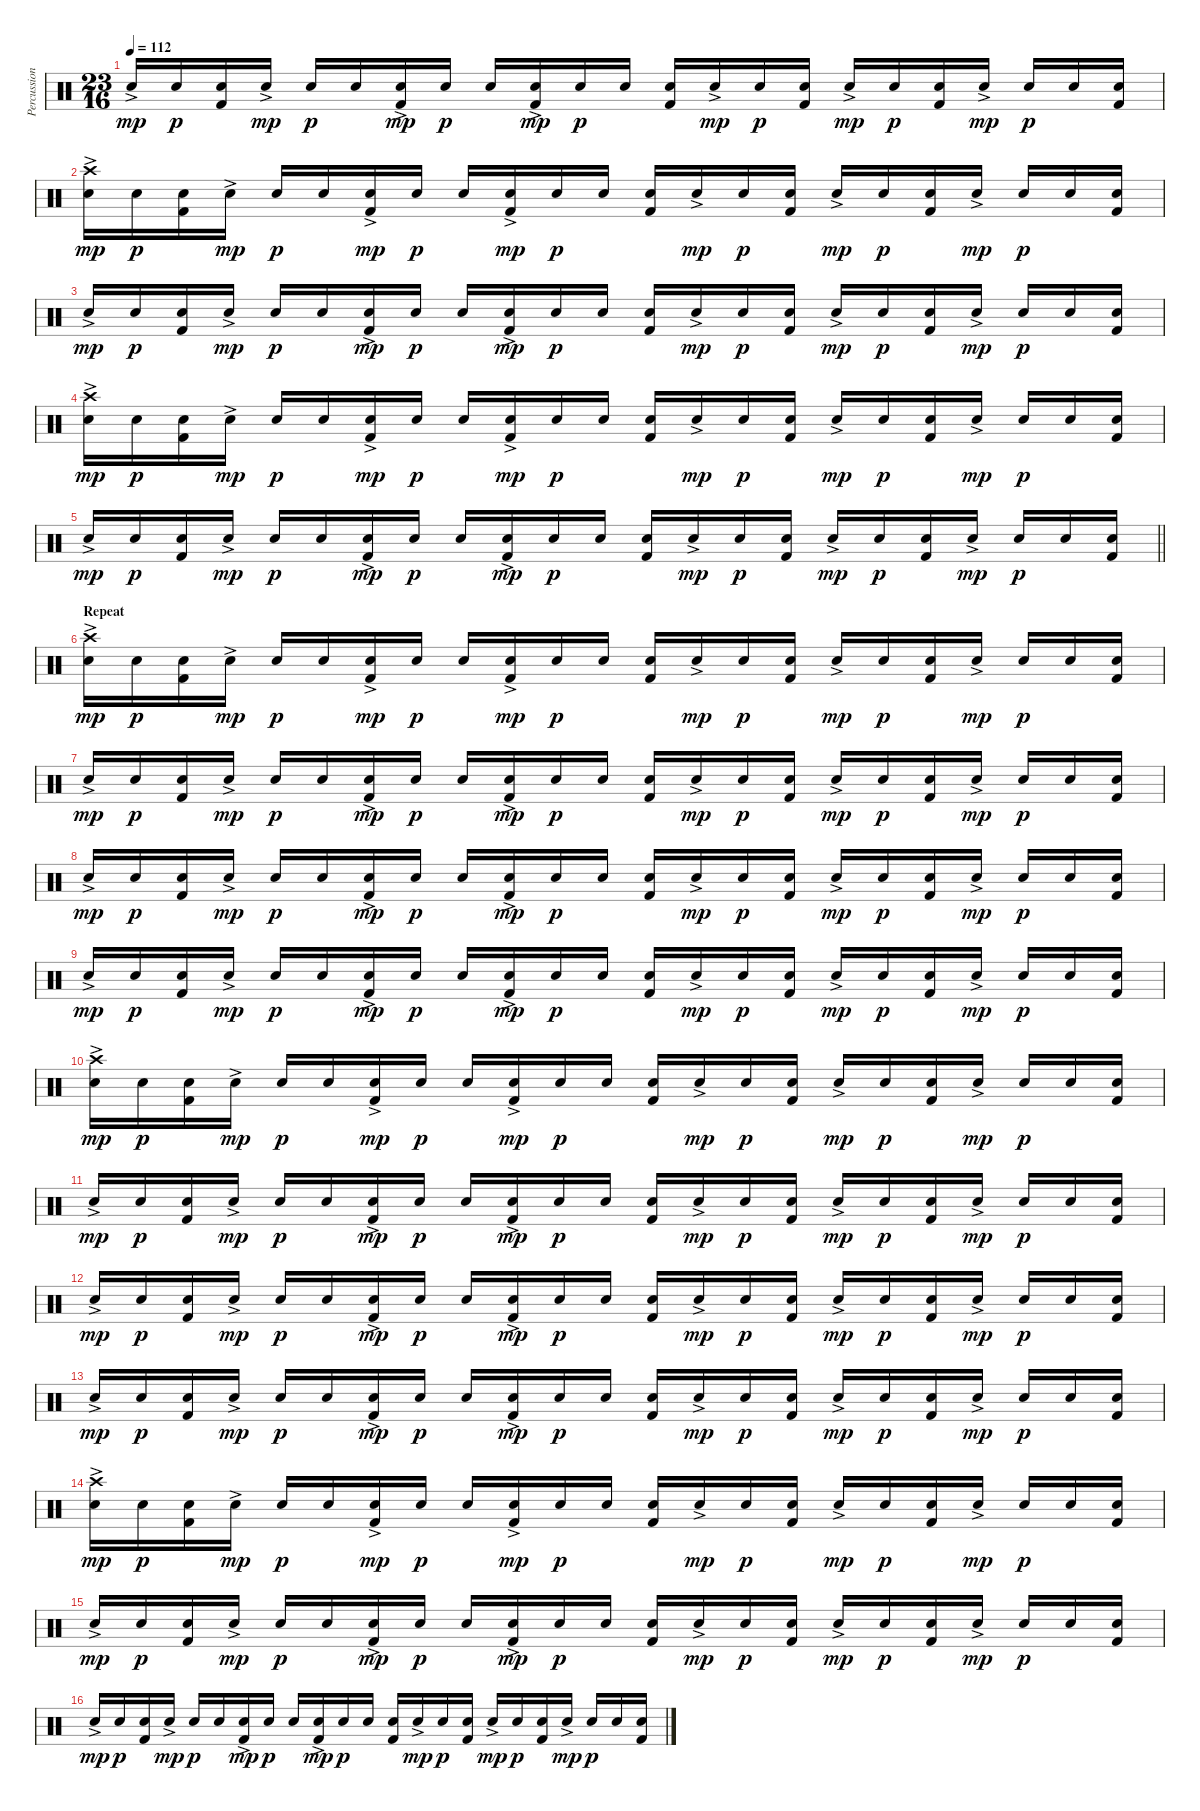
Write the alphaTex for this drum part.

\track ("Percussion" "Percussion") {instrument percussion}
\staff {score}
\articulation defaults
\ts (23 16)
\tempo 112
\clef neutral
\ks c "Snare (hit) 2"{ac}.16{dy mp} "Snare (hit) 2".16{dy p}
("Kick (hit) 2" "Snare (hit) 2").16 "Snare (hit) 2"{ac}.16{dy mp} "Snare (hit) 2".16{dy p} "Snare (hit) 2".16 ("Kick (hit) 2" "Snare (hit) 2"{ac}).16{dy mp} "Snare (hit) 2".16{dy p} "Snare (hit) 2".16 ("Kick (hit) 2" "Snare (hit) 2"{ac}).16{dy mp} "Snare (hit) 2".16{dy p} "Snare (hit) 2".16 ("Kick (hit) 2" "Snare (hit) 2").16 "Snare (hit) 2"{ac}.16{dy mp} "Snare (hit) 2".16{dy p} ("Kick (hit) 2" "Snare (hit) 2").16 "Snare (hit) 2"{ac}.16{dy mp} "Snare (hit) 2".16{dy p} ("Kick (hit) 2" "Snare (hit) 2").16 "Snare (hit) 2"{ac}.16{dy mp} "Snare (hit) 2".16{dy p} "Snare (hit) 2".16 ("Kick (hit) 2" "Snare (hit) 2").16 |
("Crash high (hit)" "Snare (hit) 2"{ac}).16{dy mp} "Snare (hit) 2".16{dy p} ("Kick (hit) 2" "Snare (hit) 2").16 "Snare (hit) 2"{ac}.16{dy mp} "Snare (hit) 2".16{dy p} "Snare (hit) 2".16 ("Kick (hit) 2" "Snare (hit) 2"{ac}).16{dy mp} "Snare (hit) 2".16{dy p} "Snare (hit) 2".16 ("Kick (hit) 2" "Snare (hit) 2"{ac}).16{dy mp} "Snare (hit) 2".16{dy p} "Snare (hit) 2".16 ("Kick (hit) 2" "Snare (hit) 2").16 "Snare (hit) 2"{ac}.16{dy mp} "Snare (hit) 2".16{dy p} ("Kick (hit) 2" "Snare (hit) 2").16 "Snare (hit) 2"{ac}.16{dy mp} "Snare (hit) 2".16{dy p} ("Kick (hit) 2" "Snare (hit) 2").16 "Snare (hit) 2"{ac}.16{dy mp} "Snare (hit) 2".16{dy p} "Snare (hit) 2".16 ("Kick (hit) 2" "Snare (hit) 2").16 |
"Snare (hit) 2"{ac}.16{dy mp} "Snare (hit) 2".16{dy p} ("Kick (hit) 2" "Snare (hit) 2").16 "Snare (hit) 2"{ac}.16{dy mp} "Snare (hit) 2".16{dy p} "Snare (hit) 2".16 ("Kick (hit) 2" "Snare (hit) 2"{ac}).16{dy mp} "Snare (hit) 2".16{dy p} "Snare (hit) 2".16 ("Kick (hit) 2" "Snare (hit) 2"{ac}).16{dy mp} "Snare (hit) 2".16{dy p} "Snare (hit) 2".16 ("Kick (hit) 2" "Snare (hit) 2").16 "Snare (hit) 2"{ac}.16{dy mp} "Snare (hit) 2".16{dy p} ("Kick (hit) 2" "Snare (hit) 2").16 "Snare (hit) 2"{ac}.16{dy mp} "Snare (hit) 2".16{dy p} ("Kick (hit) 2" "Snare (hit) 2").16 "Snare (hit) 2"{ac}.16{dy mp} "Snare (hit) 2".16{dy p} "Snare (hit) 2".16 ("Kick (hit) 2" "Snare (hit) 2").16 |
("Crash high (hit)" "Snare (hit) 2"{ac}).16{dy mp} "Snare (hit) 2".16{dy p} ("Kick (hit) 2" "Snare (hit) 2").16 "Snare (hit) 2"{ac}.16{dy mp} "Snare (hit) 2".16{dy p} "Snare (hit) 2".16 ("Kick (hit) 2" "Snare (hit) 2"{ac}).16{dy mp} "Snare (hit) 2".16{dy p} "Snare (hit) 2".16 ("Kick (hit) 2" "Snare (hit) 2"{ac}).16{dy mp} "Snare (hit) 2".16{dy p} "Snare (hit) 2".16 ("Kick (hit) 2" "Snare (hit) 2").16 "Snare (hit) 2"{ac}.16{dy mp} "Snare (hit) 2".16{dy p} ("Kick (hit) 2" "Snare (hit) 2").16 "Snare (hit) 2"{ac}.16{dy mp} "Snare (hit) 2".16{dy p} ("Kick (hit) 2" "Snare (hit) 2").16 "Snare (hit) 2"{ac}.16{dy mp} "Snare (hit) 2".16{dy p} "Snare (hit) 2".16 ("Kick (hit) 2" "Snare (hit) 2").16 |
\barLineRight lightlight "Snare (hit) 2"{ac}.16{dy mp} "Snare (hit) 2".16{dy p}
("Kick (hit) 2" "Snare (hit) 2").16 "Snare (hit) 2"{ac}.16{dy mp} "Snare (hit) 2".16{dy p} "Snare (hit) 2".16 ("Kick (hit) 2" "Snare (hit) 2"{ac}).16{dy mp} "Snare (hit) 2".16{dy p} "Snare (hit) 2".16 ("Kick (hit) 2" "Snare (hit) 2"{ac}).16{dy mp} "Snare (hit) 2".16{dy p} "Snare (hit) 2".16 ("Kick (hit) 2" "Snare (hit) 2").16 "Snare (hit) 2"{ac}.16{dy mp} "Snare (hit) 2".16{dy p} ("Kick (hit) 2" "Snare (hit) 2").16 "Snare (hit) 2"{ac}.16{dy mp} "Snare (hit) 2".16{dy p} ("Kick (hit) 2" "Snare (hit) 2").16 "Snare (hit) 2"{ac}.16{dy mp} "Snare (hit) 2".16{dy p} "Snare (hit) 2".16 ("Kick (hit) 2" "Snare (hit) 2").16 |
\section ("" "Repeat")
("Crash high (hit)" "Snare (hit) 2"{ac}).16{dy mp} "Snare (hit) 2".16{dy p} ("Kick (hit) 2" "Snare (hit) 2").16 "Snare (hit) 2"{ac}.16{dy mp} "Snare (hit) 2".16{dy p} "Snare (hit) 2".16 ("Kick (hit) 2" "Snare (hit) 2"{ac}).16{dy mp} "Snare (hit) 2".16{dy p} "Snare (hit) 2".16 ("Kick (hit) 2" "Snare (hit) 2"{ac}).16{dy mp} "Snare (hit) 2".16{dy p} "Snare (hit) 2".16 ("Kick (hit) 2" "Snare (hit) 2").16 "Snare (hit) 2"{ac}.16{dy mp} "Snare (hit) 2".16{dy p} ("Kick (hit) 2" "Snare (hit) 2").16 "Snare (hit) 2"{ac}.16{dy mp} "Snare (hit) 2".16{dy p} ("Kick (hit) 2" "Snare (hit) 2").16 "Snare (hit) 2"{ac}.16{dy mp} "Snare (hit) 2".16{dy p} "Snare (hit) 2".16 ("Kick (hit) 2" "Snare (hit) 2").16 |
"Snare (hit) 2"{ac}.16{dy mp} "Snare (hit) 2".16{dy p} ("Kick (hit) 2" "Snare (hit) 2").16 "Snare (hit) 2"{ac}.16{dy mp} "Snare (hit) 2".16{dy p} "Snare (hit) 2".16 ("Kick (hit) 2" "Snare (hit) 2"{ac}).16{dy mp} "Snare (hit) 2".16{dy p} "Snare (hit) 2".16 ("Kick (hit) 2" "Snare (hit) 2"{ac}).16{dy mp} "Snare (hit) 2".16{dy p} "Snare (hit) 2".16 ("Kick (hit) 2" "Snare (hit) 2").16 "Snare (hit) 2"{ac}.16{dy mp} "Snare (hit) 2".16{dy p} ("Kick (hit) 2" "Snare (hit) 2").16 "Snare (hit) 2"{ac}.16{dy mp} "Snare (hit) 2".16{dy p} ("Kick (hit) 2" "Snare (hit) 2").16 "Snare (hit) 2"{ac}.16{dy mp} "Snare (hit) 2".16{dy p} "Snare (hit) 2".16 ("Kick (hit) 2" "Snare (hit) 2").16 |
"Snare (hit) 2"{ac}.16{dy mp} "Snare (hit) 2".16{dy p} ("Kick (hit) 2" "Snare (hit) 2").16 "Snare (hit) 2"{ac}.16{dy mp} "Snare (hit) 2".16{dy p} "Snare (hit) 2".16 ("Kick (hit) 2" "Snare (hit) 2"{ac}).16{dy mp} "Snare (hit) 2".16{dy p} "Snare (hit) 2".16 ("Kick (hit) 2" "Snare (hit) 2"{ac}).16{dy mp} "Snare (hit) 2".16{dy p} "Snare (hit) 2".16 ("Kick (hit) 2" "Snare (hit) 2").16 "Snare (hit) 2"{ac}.16{dy mp} "Snare (hit) 2".16{dy p} ("Kick (hit) 2" "Snare (hit) 2").16 "Snare (hit) 2"{ac}.16{dy mp} "Snare (hit) 2".16{dy p} ("Kick (hit) 2" "Snare (hit) 2").16 "Snare (hit) 2"{ac}.16{dy mp} "Snare (hit) 2".16{dy p} "Snare (hit) 2".16 ("Kick (hit) 2" "Snare (hit) 2").16 |
"Snare (hit) 2"{ac}.16{dy mp} "Snare (hit) 2".16{dy p} ("Kick (hit) 2" "Snare (hit) 2").16 "Snare (hit) 2"{ac}.16{dy mp} "Snare (hit) 2".16{dy p} "Snare (hit) 2".16 ("Kick (hit) 2" "Snare (hit) 2"{ac}).16{dy mp} "Snare (hit) 2".16{dy p} "Snare (hit) 2".16 ("Kick (hit) 2" "Snare (hit) 2"{ac}).16{dy mp} "Snare (hit) 2".16{dy p} "Snare (hit) 2".16 ("Kick (hit) 2" "Snare (hit) 2").16 "Snare (hit) 2"{ac}.16{dy mp} "Snare (hit) 2".16{dy p} ("Kick (hit) 2" "Snare (hit) 2").16 "Snare (hit) 2"{ac}.16{dy mp} "Snare (hit) 2".16{dy p} ("Kick (hit) 2" "Snare (hit) 2").16 "Snare (hit) 2"{ac}.16{dy mp} "Snare (hit) 2".16{dy p} "Snare (hit) 2".16 ("Kick (hit) 2" "Snare (hit) 2").16 |
("Crash high (hit)" "Snare (hit) 2"{ac}).16{dy mp} "Snare (hit) 2".16{dy p} ("Kick (hit) 2" "Snare (hit) 2").16 "Snare (hit) 2"{ac}.16{dy mp} "Snare (hit) 2".16{dy p} "Snare (hit) 2".16 ("Kick (hit) 2" "Snare (hit) 2"{ac}).16{dy mp} "Snare (hit) 2".16{dy p} "Snare (hit) 2".16 ("Kick (hit) 2" "Snare (hit) 2"{ac}).16{dy mp} "Snare (hit) 2".16{dy p} "Snare (hit) 2".16 ("Kick (hit) 2" "Snare (hit) 2").16 "Snare (hit) 2"{ac}.16{dy mp} "Snare (hit) 2".16{dy p} ("Kick (hit) 2" "Snare (hit) 2").16 "Snare (hit) 2"{ac}.16{dy mp} "Snare (hit) 2".16{dy p} ("Kick (hit) 2" "Snare (hit) 2").16 "Snare (hit) 2"{ac}.16{dy mp} "Snare (hit) 2".16{dy p} "Snare (hit) 2".16 ("Kick (hit) 2" "Snare (hit) 2").16 |
"Snare (hit) 2"{ac}.16{dy mp} "Snare (hit) 2".16{dy p} ("Kick (hit) 2" "Snare (hit) 2").16 "Snare (hit) 2"{ac}.16{dy mp} "Snare (hit) 2".16{dy p} "Snare (hit) 2".16 ("Kick (hit) 2" "Snare (hit) 2"{ac}).16{dy mp} "Snare (hit) 2".16{dy p} "Snare (hit) 2".16 ("Kick (hit) 2" "Snare (hit) 2"{ac}).16{dy mp} "Snare (hit) 2".16{dy p} "Snare (hit) 2".16 ("Kick (hit) 2" "Snare (hit) 2").16 "Snare (hit) 2"{ac}.16{dy mp} "Snare (hit) 2".16{dy p} ("Kick (hit) 2" "Snare (hit) 2").16 "Snare (hit) 2"{ac}.16{dy mp} "Snare (hit) 2".16{dy p} ("Kick (hit) 2" "Snare (hit) 2").16 "Snare (hit) 2"{ac}.16{dy mp} "Snare (hit) 2".16{dy p} "Snare (hit) 2".16 ("Kick (hit) 2" "Snare (hit) 2").16 |
"Snare (hit) 2"{ac}.16{dy mp} "Snare (hit) 2".16{dy p} ("Kick (hit) 2" "Snare (hit) 2").16 "Snare (hit) 2"{ac}.16{dy mp} "Snare (hit) 2".16{dy p} "Snare (hit) 2".16 ("Kick (hit) 2" "Snare (hit) 2"{ac}).16{dy mp} "Snare (hit) 2".16{dy p} "Snare (hit) 2".16 ("Kick (hit) 2" "Snare (hit) 2"{ac}).16{dy mp} "Snare (hit) 2".16{dy p} "Snare (hit) 2".16 ("Kick (hit) 2" "Snare (hit) 2").16 "Snare (hit) 2"{ac}.16{dy mp} "Snare (hit) 2".16{dy p} ("Kick (hit) 2" "Snare (hit) 2").16 "Snare (hit) 2"{ac}.16{dy mp} "Snare (hit) 2".16{dy p} ("Kick (hit) 2" "Snare (hit) 2").16 "Snare (hit) 2"{ac}.16{dy mp} "Snare (hit) 2".16{dy p} "Snare (hit) 2".16 ("Kick (hit) 2" "Snare (hit) 2").16 |
"Snare (hit) 2"{ac}.16{dy mp} "Snare (hit) 2".16{dy p} ("Kick (hit) 2" "Snare (hit) 2").16 "Snare (hit) 2"{ac}.16{dy mp} "Snare (hit) 2".16{dy p} "Snare (hit) 2".16 ("Kick (hit) 2" "Snare (hit) 2"{ac}).16{dy mp} "Snare (hit) 2".16{dy p} "Snare (hit) 2".16 ("Kick (hit) 2" "Snare (hit) 2"{ac}).16{dy mp} "Snare (hit) 2".16{dy p} "Snare (hit) 2".16 ("Kick (hit) 2" "Snare (hit) 2").16 "Snare (hit) 2"{ac}.16{dy mp} "Snare (hit) 2".16{dy p} ("Kick (hit) 2" "Snare (hit) 2").16 "Snare (hit) 2"{ac}.16{dy mp} "Snare (hit) 2".16{dy p} ("Kick (hit) 2" "Snare (hit) 2").16 "Snare (hit) 2"{ac}.16{dy mp} "Snare (hit) 2".16{dy p} "Snare (hit) 2".16 ("Kick (hit) 2" "Snare (hit) 2").16 |
("Crash high (hit)" "Snare (hit) 2"{ac}).16{dy mp} "Snare (hit) 2".16{dy p} ("Kick (hit) 2" "Snare (hit) 2").16 "Snare (hit) 2"{ac}.16{dy mp} "Snare (hit) 2".16{dy p} "Snare (hit) 2".16 ("Kick (hit) 2" "Snare (hit) 2"{ac}).16{dy mp} "Snare (hit) 2".16{dy p} "Snare (hit) 2".16 ("Kick (hit) 2" "Snare (hit) 2"{ac}).16{dy mp} "Snare (hit) 2".16{dy p} "Snare (hit) 2".16 ("Kick (hit) 2" "Snare (hit) 2").16 "Snare (hit) 2"{ac}.16{dy mp} "Snare (hit) 2".16{dy p} ("Kick (hit) 2" "Snare (hit) 2").16 "Snare (hit) 2"{ac}.16{dy mp} "Snare (hit) 2".16{dy p} ("Kick (hit) 2" "Snare (hit) 2").16 "Snare (hit) 2"{ac}.16{dy mp} "Snare (hit) 2".16{dy p} "Snare (hit) 2".16 ("Kick (hit) 2" "Snare (hit) 2").16 |
"Snare (hit) 2"{ac}.16{dy mp} "Snare (hit) 2".16{dy p} ("Kick (hit) 2" "Snare (hit) 2").16 "Snare (hit) 2"{ac}.16{dy mp} "Snare (hit) 2".16{dy p} "Snare (hit) 2".16 ("Kick (hit) 2" "Snare (hit) 2"{ac}).16{dy mp} "Snare (hit) 2".16{dy p} "Snare (hit) 2".16 ("Kick (hit) 2" "Snare (hit) 2"{ac}).16{dy mp} "Snare (hit) 2".16{dy p} "Snare (hit) 2".16 ("Kick (hit) 2" "Snare (hit) 2").16 "Snare (hit) 2"{ac}.16{dy mp} "Snare (hit) 2".16{dy p} ("Kick (hit) 2" "Snare (hit) 2").16 "Snare (hit) 2"{ac}.16{dy mp} "Snare (hit) 2".16{dy p} ("Kick (hit) 2" "Snare (hit) 2").16 "Snare (hit) 2"{ac}.16{dy mp} "Snare (hit) 2".16{dy p} "Snare (hit) 2".16 ("Kick (hit) 2" "Snare (hit) 2").16 |
"Snare (hit) 2"{ac}.16{dy mp} "Snare (hit) 2".16{dy p} ("Kick (hit) 2" "Snare (hit) 2").16 "Snare (hit) 2"{ac}.16{dy mp} "Snare (hit) 2".16{dy p} "Snare (hit) 2".16 ("Kick (hit) 2" "Snare (hit) 2"{ac}).16{dy mp} "Snare (hit) 2".16{dy p} "Snare (hit) 2".16 ("Kick (hit) 2" "Snare (hit) 2"{ac}).16{dy mp} "Snare (hit) 2".16{dy p} "Snare (hit) 2".16 ("Kick (hit) 2" "Snare (hit) 2").16 "Snare (hit) 2"{ac}.16{dy mp} "Snare (hit) 2".16{dy p} ("Kick (hit) 2" "Snare (hit) 2").16 "Snare (hit) 2"{ac}.16{dy mp} "Snare (hit) 2".16{dy p} ("Kick (hit) 2" "Snare (hit) 2").16 "Snare (hit) 2"{ac}.16{dy mp} "Snare (hit) 2".16{dy p} "Snare (hit) 2".16 ("Kick (hit) 2" "Snare (hit) 2").16
